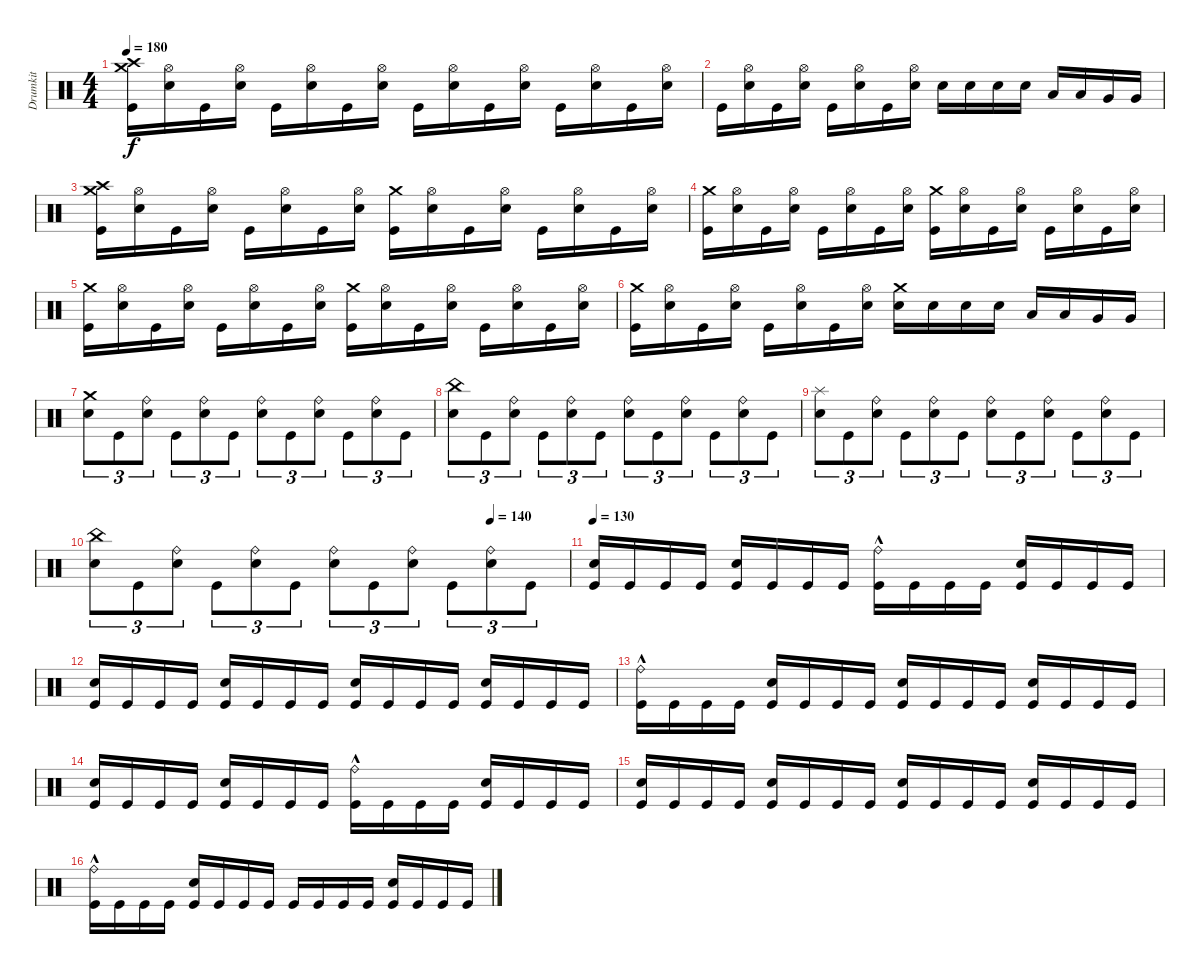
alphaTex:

\track ("Drumkit" "Drumkit") {instrument percussion}
\staff {score}
\articulation defaults
\ts (4 4)
\tempo 180
\clef neutral
\ks c
("Crash medium (hit)" "Crash high (hit)" "Kick (hit)").16{dy f} ("Hi-Hat (open)" "Snare (hit) 2").16 "Kick (hit)".16 ("Hi-Hat (open)" "Snare (hit) 2").16 "Kick (hit)".16 ("Hi-Hat (open)" "Snare (hit) 2").16 "Kick (hit)".16 ("Hi-Hat (open)" "Snare (hit) 2").16 "Kick (hit)".16 ("Hi-Hat (open)" "Snare (hit) 2").16 "Kick (hit)".16 ("Hi-Hat (open)" "Snare (hit) 2").16 "Kick (hit)".16 ("Hi-Hat (open)" "Snare (hit) 2").16 "Kick (hit)".16 ("Hi-Hat (open)" "Snare (hit) 2").16 |
"Kick (hit)".16 ("Hi-Hat (open)" "Snare (hit) 2").16 "Kick (hit)".16 ("Hi-Hat (open)" "Snare (hit) 2").16 "Kick (hit)".16 ("Hi-Hat (open)" "Snare (hit) 2").16 "Kick (hit)".16 ("Hi-Hat (open)" "Snare (hit) 2").16 "Snare (hit) 2".16 "Snare (hit) 2".16 "Snare (hit) 2".16 "Snare (hit) 2".16 "Low Tom (hit)".16 "Low Tom (hit)".16 "Very Low Tom (hit)".16 "Very Low Tom (hit)".16 |
("Crash medium (hit)" "Crash high (hit)" "Kick (hit)").16 ("Hi-Hat (open)" "Snare (hit) 2").16 "Kick (hit)".16 ("Hi-Hat (open)" "Snare (hit) 2").16 "Kick (hit)".16 ("Hi-Hat (open)" "Snare (hit) 2").16 "Kick (hit)".16 ("Hi-Hat (open)" "Snare (hit) 2").16 ("Crash medium (hit)" "Kick (hit)").16 ("Hi-Hat (open)" "Snare (hit) 2").16 "Kick (hit)".16 ("Hi-Hat (open)" "Snare (hit) 2").16 "Kick (hit)".16 ("Hi-Hat (open)" "Snare (hit) 2").16 "Kick (hit)".16 ("Hi-Hat (open)" "Snare (hit) 2").16 |
("Crash medium (hit)" "Kick (hit)").16 ("Hi-Hat (open)" "Snare (hit) 2").16 "Kick (hit)".16 ("Hi-Hat (open)" "Snare (hit) 2").16 "Kick (hit)".16 ("Hi-Hat (open)" "Snare (hit) 2").16 "Kick (hit)".16 ("Hi-Hat (open)" "Snare (hit) 2").16 ("Crash medium (hit)" "Kick (hit)").16 ("Hi-Hat (open)" "Snare (hit) 2").16 "Kick (hit)".16 ("Hi-Hat (open)" "Snare (hit) 2").16 "Kick (hit)".16 ("Hi-Hat (open)" "Snare (hit) 2").16 "Kick (hit)".16 ("Hi-Hat (open)" "Snare (hit) 2").16 |
("Crash medium (hit)" "Kick (hit)").16 ("Hi-Hat (open)" "Snare (hit) 2").16 "Kick (hit)".16 ("Hi-Hat (open)" "Snare (hit) 2").16 "Kick (hit)".16 ("Hi-Hat (open)" "Snare (hit) 2").16 "Kick (hit)".16 ("Hi-Hat (open)" "Snare (hit) 2").16 ("Crash medium (hit)" "Kick (hit)").16 ("Hi-Hat (open)" "Snare (hit) 2").16 "Kick (hit)".16 ("Hi-Hat (open)" "Snare (hit) 2").16 "Kick (hit)".16 ("Hi-Hat (open)" "Snare (hit) 2").16 "Kick (hit)".16 ("Hi-Hat (open)" "Snare (hit) 2").16 |
("Crash medium (hit)" "Kick (hit)").16 ("Hi-Hat (open)" "Snare (hit) 2").16 "Kick (hit)".16 ("Hi-Hat (open)" "Snare (hit) 2").16 "Kick (hit)".16 ("Hi-Hat (open)" "Snare (hit) 2").16 "Kick (hit)".16 ("Hi-Hat (open)" "Snare (hit) 2").16 ("Crash medium (hit)" "Snare (hit) 2").16 "Snare (hit) 2".16 "Snare (hit) 2".16 "Snare (hit) 2".16 "Low Tom (hit)".16 "Low Tom (hit)".16 "Very Low Tom (hit)".16 "Very Low Tom (hit)".16 |
("Crash medium (hit)" "Snare (hit) 2").8{tu (3 2)} "Kick (hit)".8{tu (3 2)} ("Ride (bell)" "Snare (hit) 2").8{tu (3 2)} "Kick (hit)".8{tu (3 2)} ("Ride (bell)" "Snare (hit) 2").8{tu (3 2)} "Kick (hit)".8{tu (3 2)} ("Ride (bell)" "Snare (hit) 2").8{tu (3 2)} "Kick (hit)".8{tu (3 2)} ("Ride (bell)" "Snare (hit) 2").8{tu (3 2)} "Kick (hit)".8{tu (3 2)} ("Ride (bell)" "Snare (hit) 2").8{tu (3 2)} "Kick (hit)".8{tu (3 2)} |
("China (hit)" "Snare (hit) 2").8{tu (3 2)} "Kick (hit)".8{tu (3 2)} ("Ride (bell)" "Snare (hit) 2").8{tu (3 2)} "Kick (hit)".8{tu (3 2)} ("Ride (bell)" "Snare (hit) 2").8{tu (3 2)} "Kick (hit)".8{tu (3 2)} ("Ride (bell)" "Snare (hit) 2").8{tu (3 2)} "Kick (hit)".8{tu (3 2)} ("Ride (bell)" "Snare (hit) 2").8{tu (3 2)} "Kick (hit)".8{tu (3 2)} ("Ride (bell)" "Snare (hit) 2").8{tu (3 2)} "Kick (hit)".8{tu (3 2)} |
("Splash (hit)" "Snare (hit) 2").8{tu (3 2)} "Kick (hit)".8{tu (3 2)} ("Ride (bell)" "Snare (hit) 2").8{tu (3 2)} "Kick (hit)".8{tu (3 2)} ("Ride (bell)" "Snare (hit) 2").8{tu (3 2)} "Kick (hit)".8{tu (3 2)} ("Ride (bell)" "Snare (hit) 2").8{tu (3 2)} "Kick (hit)".8{tu (3 2)} ("Ride (bell)" "Snare (hit) 2").8{tu (3 2)} "Kick (hit)".8{tu (3 2)} ("Ride (bell)" "Snare (hit) 2").8{tu (3 2)} "Kick (hit)".8{tu (3 2)} |
\tempo (140 0.8333333333333334)
("China (hit)" "Snare (hit) 2").8{tu (3 2)} "Kick (hit)".8{tu (3 2)} ("Ride (bell)" "Snare (hit) 2").8{tu (3 2)} "Kick (hit)".8{tu (3 2)} ("Ride (bell)" "Snare (hit) 2").8{tu (3 2)} "Kick (hit)".8{tu (3 2)} ("Ride (bell)" "Snare (hit) 2").8{tu (3 2)} "Kick (hit)".8{tu (3 2)} ("Ride (bell)" "Snare (hit) 2").8{tu (3 2)} "Kick (hit)".8{tu (3 2)} ("Ride (bell)" "Snare (hit) 2").8{tu (3 2)} "Kick (hit)".8{tu (3 2)} |
\tempo 130
("Snare (hit) 2" "Kick (hit)").16 "Kick (hit)".16 "Kick (hit)".16 "Kick (hit)".16 ("Snare (hit) 2" "Kick (hit)").16 "Kick (hit)".16 "Kick (hit)".16 "Kick (hit)".16 ("Ride (bell)"{hac} "Kick (hit)").16 "Kick (hit)".16 "Kick (hit)".16 "Kick (hit)".16 ("Snare (hit) 2" "Kick (hit)").16 "Kick (hit)".16 "Kick (hit)".16 "Kick (hit)".16 |
("Snare (hit) 2" "Kick (hit)").16 "Kick (hit)".16 "Kick (hit)".16 "Kick (hit)".16 ("Snare (hit) 2" "Kick (hit)").16 "Kick (hit)".16 "Kick (hit)".16 "Kick (hit)".16 ("Snare (hit) 2" "Kick (hit)").16 "Kick (hit)".16 "Kick (hit)".16 "Kick (hit)".16 ("Snare (hit) 2" "Kick (hit)").16 "Kick (hit)".16 "Kick (hit)".16 "Kick (hit)".16 |
("Ride (bell)"{hac} "Kick (hit)").16 "Kick (hit)".16 "Kick (hit)".16 "Kick (hit)".16 ("Snare (hit) 2" "Kick (hit)").16 "Kick (hit)".16 "Kick (hit)".16 "Kick (hit)".16 ("Snare (hit) 2" "Kick (hit)").16 "Kick (hit)".16 "Kick (hit)".16 "Kick (hit)".16 ("Snare (hit) 2" "Kick (hit)").16 "Kick (hit)".16 "Kick (hit)".16 "Kick (hit)".16 |
("Snare (hit) 2" "Kick (hit)").16 "Kick (hit)".16 "Kick (hit)".16 "Kick (hit)".16 ("Snare (hit) 2" "Kick (hit)").16 "Kick (hit)".16 "Kick (hit)".16 "Kick (hit)".16 ("Ride (bell)"{hac} "Kick (hit)").16 "Kick (hit)".16 "Kick (hit)".16 "Kick (hit)".16 ("Snare (hit) 2" "Kick (hit)").16 "Kick (hit)".16 "Kick (hit)".16 "Kick (hit)".16 |
("Snare (hit) 2" "Kick (hit)").16 "Kick (hit)".16 "Kick (hit)".16 "Kick (hit)".16 ("Snare (hit) 2" "Kick (hit)").16 "Kick (hit)".16 "Kick (hit)".16 "Kick (hit)".16 ("Snare (hit) 2" "Kick (hit)").16 "Kick (hit)".16 "Kick (hit)".16 "Kick (hit)".16 ("Snare (hit) 2" "Kick (hit)").16 "Kick (hit)".16 "Kick (hit)".16 "Kick (hit)".16 |
("Ride (bell)"{hac} "Kick (hit)").16 "Kick (hit)".16 "Kick (hit)".16 "Kick (hit)".16 ("Snare (hit) 2" "Kick (hit)").16 "Kick (hit)".16 "Kick (hit)".16 "Kick (hit)".16 "Kick (hit)".16 "Kick (hit)".16 "Kick (hit)".16 "Kick (hit)".16 ("Snare (hit) 2" "Kick (hit)").16 "Kick (hit)".16 "Kick (hit)".16 "Kick (hit)".16
